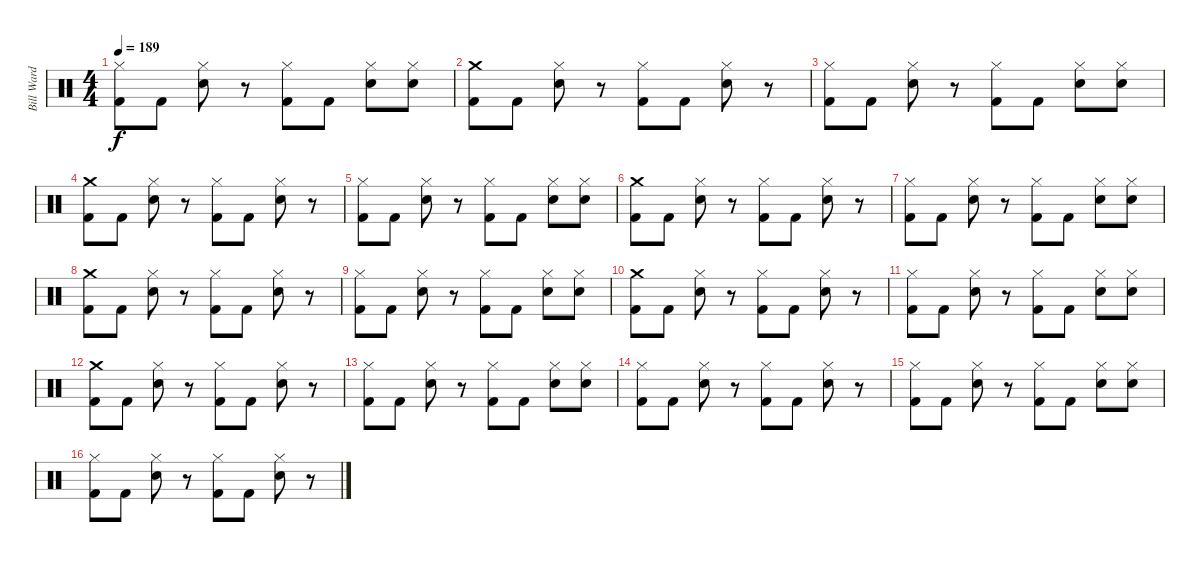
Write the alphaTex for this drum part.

\track ("Bill Ward" "Bill Ward") {instrument percussion}
\staff {score}
\articulation defaults
\ts (4 4)
\tempo 189
\clef neutral
\ks c
("Kick (hit) 2" "Hi-Hat (closed)").8{dy f} "Kick (hit) 2".8 ("Hi-Hat (closed)" "Electric Snare (hit)").8 r.8 ("Hi-Hat (closed)" "Kick (hit) 2").8 "Kick (hit) 2".8 ("Electric Snare (hit)" "Hi-Hat (closed)").8 ("Hi-Hat (closed)" "Electric Snare (hit)").8 |
("Crash medium (hit)" "Kick (hit) 2").8 "Kick (hit) 2".8 ("Electric Snare (hit)" "Hi-Hat (closed)").8 r.8 ("Hi-Hat (closed)" "Kick (hit) 2").8 "Kick (hit) 2".8 ("Hi-Hat (closed)" "Electric Snare (hit)").8 r.8 |
("Hi-Hat (closed)" "Kick (hit) 2").8 "Kick (hit) 2".8 ("Hi-Hat (closed)" "Electric Snare (hit)").8 r.8 ("Hi-Hat (closed)" "Kick (hit) 2").8 "Kick (hit) 2".8 ("Electric Snare (hit)" "Hi-Hat (closed)").8 ("Hi-Hat (closed)" "Electric Snare (hit)").8 |
("Kick (hit) 2" "Crash medium (hit)").8 "Kick (hit) 2".8 ("Hi-Hat (closed)" "Electric Snare (hit)").8 r.8 ("Kick (hit) 2" "Hi-Hat (closed)").8 "Kick (hit) 2".8 ("Hi-Hat (closed)" "Electric Snare (hit)").8 r.8 |
("Hi-Hat (closed)" "Kick (hit) 2").8 "Kick (hit) 2".8 ("Electric Snare (hit)" "Hi-Hat (closed)").8 r.8 ("Hi-Hat (closed)" "Kick (hit) 2").8 "Kick (hit) 2".8 ("Hi-Hat (closed)" "Electric Snare (hit)").8 ("Hi-Hat (closed)" "Electric Snare (hit)").8 |
("Crash medium (hit)" "Kick (hit) 2").8 "Kick (hit) 2".8 ("Electric Snare (hit)" "Hi-Hat (closed)").8 r.8 ("Kick (hit) 2" "Hi-Hat (closed)").8 "Kick (hit) 2".8 ("Hi-Hat (closed)" "Electric Snare (hit)").8 r.8 |
("Hi-Hat (closed)" "Kick (hit) 2").8 "Kick (hit) 2".8 ("Electric Snare (hit)" "Hi-Hat (closed)").8 r.8 ("Hi-Hat (closed)" "Kick (hit) 2").8 "Kick (hit) 2".8 ("Electric Snare (hit)" "Hi-Hat (closed)").8 ("Electric Snare (hit)" "Hi-Hat (closed)").8 |
("Crash medium (hit)" "Kick (hit) 2").8 "Kick (hit) 2".8 ("Hi-Hat (closed)" "Electric Snare (hit)").8 r.8 ("Hi-Hat (closed)" "Kick (hit) 2").8 "Kick (hit) 2".8 ("Electric Snare (hit)" "Hi-Hat (closed)").8 r.8 |
("Kick (hit) 2" "Hi-Hat (closed)").8 "Kick (hit) 2".8 ("Hi-Hat (closed)" "Electric Snare (hit)").8 r.8 ("Hi-Hat (closed)" "Kick (hit) 2").8 "Kick (hit) 2".8 ("Hi-Hat (closed)" "Electric Snare (hit)").8 ("Electric Snare (hit)" "Hi-Hat (closed)").8 |
("Crash medium (hit)" "Kick (hit) 2").8 "Kick (hit) 2".8 ("Hi-Hat (closed)" "Electric Snare (hit)").8 r.8 ("Kick (hit) 2" "Hi-Hat (closed)").8 "Kick (hit) 2".8 ("Electric Snare (hit)" "Hi-Hat (closed)").8 r.8 |
("Kick (hit) 2" "Hi-Hat (closed)").8 "Kick (hit) 2".8 ("Electric Snare (hit)" "Hi-Hat (closed)").8 r.8 ("Hi-Hat (closed)" "Kick (hit) 2").8 "Kick (hit) 2".8 ("Hi-Hat (closed)" "Electric Snare (hit)").8 ("Hi-Hat (closed)" "Electric Snare (hit)").8 |
("Kick (hit) 2" "Crash medium (hit)").8 "Kick (hit) 2".8 ("Hi-Hat (closed)" "Electric Snare (hit)").8 r.8 ("Kick (hit) 2" "Hi-Hat (closed)").8 "Kick (hit) 2".8 ("Hi-Hat (closed)" "Electric Snare (hit)").8 r.8 |
("Hi-Hat (closed)" "Kick (hit) 2").8 "Kick (hit) 2".8 ("Hi-Hat (closed)" "Electric Snare (hit)").8 r.8 ("Hi-Hat (closed)" "Kick (hit) 2").8 "Kick (hit) 2".8 ("Electric Snare (hit)" "Hi-Hat (closed)").8 ("Hi-Hat (closed)" "Electric Snare (hit)").8 |
("Hi-Hat (closed)" "Kick (hit) 2").8 "Kick (hit) 2".8 ("Hi-Hat (closed)" "Electric Snare (hit)").8 r.8 ("Hi-Hat (closed)" "Kick (hit) 2").8 "Kick (hit) 2".8 ("Electric Snare (hit)" "Hi-Hat (closed)").8 r.8 |
("Hi-Hat (closed)" "Kick (hit) 2").8 "Kick (hit) 2".8 ("Hi-Hat (closed)" "Electric Snare (hit)").8 r.8 ("Hi-Hat (closed)" "Kick (hit) 2").8 "Kick (hit) 2".8 ("Electric Snare (hit)" "Hi-Hat (closed)").8 ("Electric Snare (hit)" "Hi-Hat (closed)").8 |
("Hi-Hat (closed)" "Kick (hit) 2").8 "Kick (hit) 2".8 ("Electric Snare (hit)" "Hi-Hat (closed)").8 r.8 ("Kick (hit) 2" "Hi-Hat (closed)").8 "Kick (hit) 2".8 ("Hi-Hat (closed)" "Electric Snare (hit)").8 r.8
